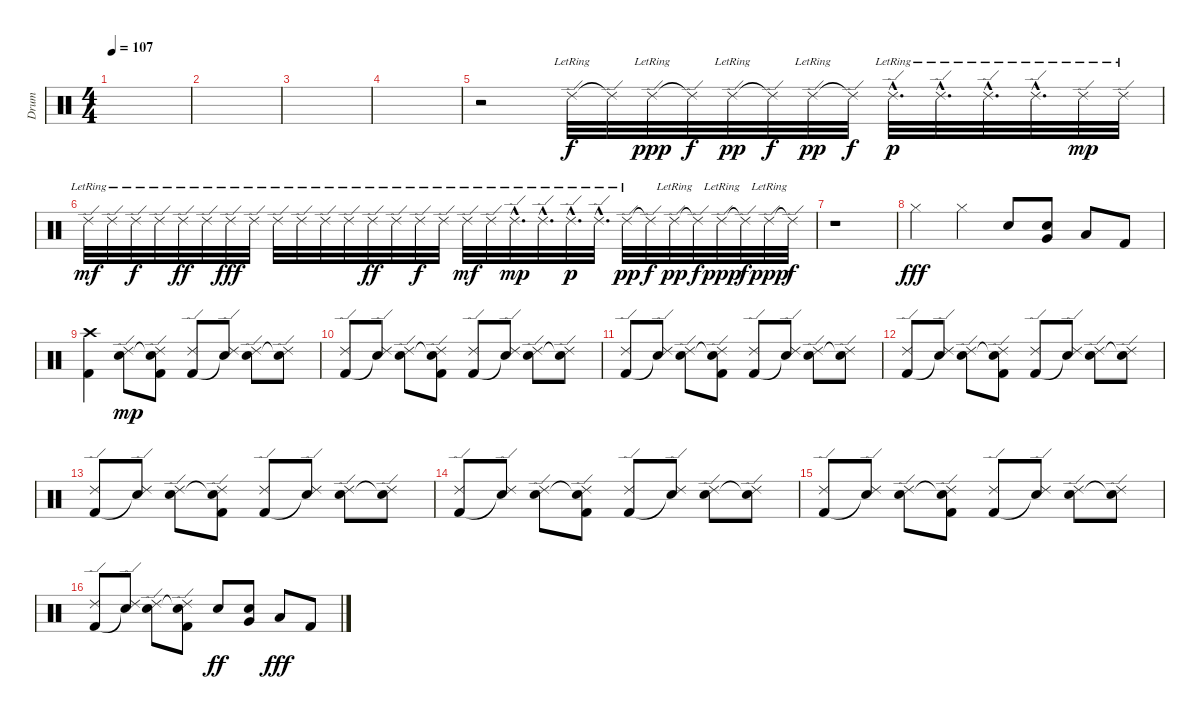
\track ("Drum" "Drum") {instrument percussion}
\staff {score}
\articulation defaults
\ts (4 4)
\tempo 107
\clef neutral
\ks c
|
|
|
|
r.2 "Ride (edge) 2"{lr}.32 "Ride (edge) 2"{t}.32{dy f} "Ride (edge) 2"{lr}.32{dy ppp} "Ride (edge) 2"{t}.32{dy f} "Ride (edge) 2"{lr}.32{dy pp} "Ride (edge) 2"{t}.32{dy f} "Ride (edge) 2"{lr}.32{dy pp} "Ride (edge) 2"{t}.32{dy f} "Ride (edge) 2"{hac lr}.32{d dy p} "Ride (edge) 2"{hac lr}.32{d} "Ride (edge) 2"{hac lr}.32{d} "Ride (edge) 2"{hac lr}.32{d} "Ride (edge) 2"{lr}.32{dy mp} "Ride (edge) 2"{lr}.32 |
"Ride (edge) 2"{lr}.32{dy mf} "Ride (edge) 2"{lr}.32 "Ride (edge) 2"{lr}.32{dy f} "Ride (edge) 2"{lr}.32 "Ride (edge) 2"{lr}.32{dy ff} "Ride (edge) 2"{lr}.32 "Ride (edge) 2"{lr}.32{dy fff} "Ride (edge) 2"{lr}.32 "Ride (edge) 2"{lr}.32 "Ride (edge) 2"{lr}.32 "Ride (edge) 2"{lr}.32 "Ride (edge) 2"{lr}.32 "Ride (edge) 2"{lr}.32{dy ff} "Ride (edge) 2"{lr}.32 "Ride (edge) 2"{lr}.32{dy f} "Ride (edge) 2"{lr}.32 "Ride (edge) 2"{lr}.32{dy mf} "Ride (edge) 2"{lr}.32 "Ride (edge) 2"{hac lr}.32{d dy mp} "Ride (edge) 2"{hac lr}.32{d} "Ride (edge) 2"{hac lr}.32{d dy p} "Ride (edge) 2"{hac lr}.32{d} "Ride (edge) 2"{lr}.32{dy pp} "Ride (edge) 2"{t}.32{dy f} "Ride (edge) 2"{lr}.32{dy pp} "Ride (edge) 2"{t}.32{dy f} "Ride (edge) 2"{lr}.32{dy ppp} "Ride (edge) 2"{t}.32{dy f} "Ride (edge) 2"{lr}.32{dy ppp} "Ride (edge) 2"{t}.32{dy f} |
r.1 |
"Hi-Hat (closed)".4{dy fff} "Hi-Hat (closed)".4 "Electric Snare (hit)".8 ("Electric Snare (hit)" "Very Low Tom (hit)").8 "Low Floor Tom (hit)".8 "Kick (hit) 2".8 |
("Kick (hit) 2" "Crash high (hit)").4 ("Electric Snare (hit)" "Ride (edge) 2").8{dy mp} ("Snare (hit)"{t} "Kick (hit) 2" "Ride (edge) 2").8 ("Kick (hit) 2" "Ride (edge) 2").8 ("Snare (hit)"{t} "Ride (edge) 2").8 ("Electric Snare (hit)" "Ride (edge) 2").8 ("Snare (hit)"{t} "Ride (edge) 2").8 |
("Kick (hit) 2" "Ride (edge) 2").8 ("Snare (hit)"{t} "Ride (edge) 2").8 ("Electric Snare (hit)" "Ride (edge) 2").8 ("Snare (hit)"{t} "Kick (hit) 2" "Ride (edge) 2").8 ("Kick (hit) 2" "Ride (edge) 2").8 ("Snare (hit)"{t} "Ride (edge) 2").8 ("Electric Snare (hit)" "Ride (edge) 2").8 ("Snare (hit)"{t} "Ride (edge) 2").8 |
("Kick (hit) 2" "Ride (edge) 2").8 ("Snare (hit)"{t} "Ride (edge) 2").8 ("Electric Snare (hit)" "Ride (edge) 2").8 ("Snare (hit)"{t} "Kick (hit) 2" "Ride (edge) 2").8 ("Kick (hit) 2" "Ride (edge) 2").8 ("Snare (hit)"{t} "Ride (edge) 2").8 ("Electric Snare (hit)" "Ride (edge) 2").8 ("Snare (hit)"{t} "Ride (edge) 2").8 |
("Kick (hit) 2" "Ride (edge) 2").8 ("Snare (hit)"{t} "Ride (edge) 2").8 ("Electric Snare (hit)" "Ride (edge) 2").8 ("Snare (hit)"{t} "Kick (hit) 2" "Ride (edge) 2").8 ("Kick (hit) 2" "Ride (edge) 2").8 ("Snare (hit)"{t} "Ride (edge) 2").8 ("Electric Snare (hit)" "Ride (edge) 2").8 ("Snare (hit)"{t} "Ride (edge) 2").8 |
("Kick (hit) 2" "Ride (edge) 2").8 ("Snare (hit)"{t} "Ride (edge) 2").8 ("Electric Snare (hit)" "Ride (edge) 2").8 ("Snare (hit)"{t} "Kick (hit) 2" "Ride (edge) 2").8 ("Kick (hit) 2" "Ride (edge) 2").8 ("Snare (hit)"{t} "Ride (edge) 2").8 ("Electric Snare (hit)" "Ride (edge) 2").8 ("Snare (hit)"{t} "Ride (edge) 2").8 |
("Kick (hit) 2" "Ride (edge) 2").8 ("Snare (hit)"{t} "Ride (edge) 2").8 ("Electric Snare (hit)" "Ride (edge) 2").8 ("Snare (hit)"{t} "Kick (hit) 2" "Ride (edge) 2").8 ("Kick (hit) 2" "Ride (edge) 2").8 ("Snare (hit)"{t} "Ride (edge) 2").8 ("Electric Snare (hit)" "Ride (edge) 2").8 ("Snare (hit)"{t} "Ride (edge) 2").8 |
("Kick (hit) 2" "Ride (edge) 2").8 ("Snare (hit)"{t} "Ride (edge) 2").8 ("Electric Snare (hit)" "Ride (edge) 2").8 ("Snare (hit)"{t} "Kick (hit) 2" "Ride (edge) 2").8 ("Kick (hit) 2" "Ride (edge) 2").8 ("Snare (hit)"{t} "Ride (edge) 2").8 ("Electric Snare (hit)" "Ride (edge) 2").8 ("Snare (hit)"{t} "Ride (edge) 2").8 |
("Kick (hit) 2" "Ride (edge) 2").8 ("Snare (hit)"{t} "Ride (edge) 2").8 ("Electric Snare (hit)" "Ride (edge) 2").8 ("Snare (hit)"{t} "Kick (hit) 2" "Ride (edge) 2").8 "Electric Snare (hit)".8{dy ff} ("Electric Snare (hit)" "Very Low Tom (hit)").8 "Low Floor Tom (hit)".8{dy fff} "Kick (hit) 2".8
